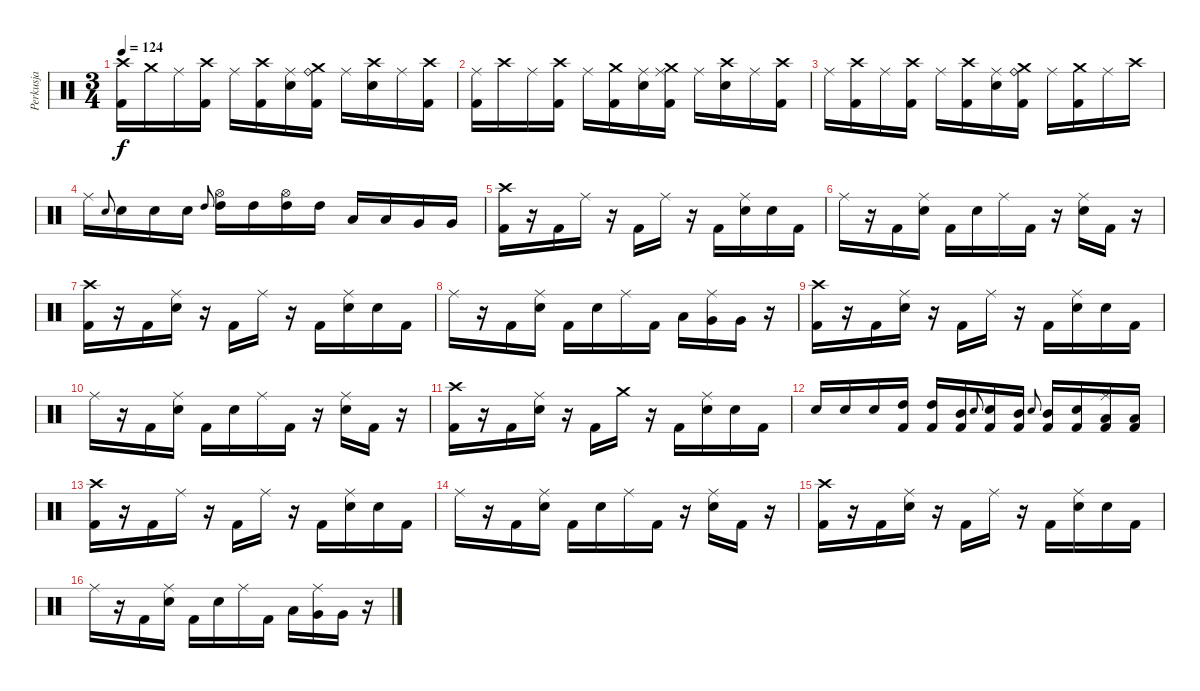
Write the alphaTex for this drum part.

\track ("Perkusja" "Perkusja") {instrument percussion}
\staff {score}
\articulation defaults
\ts (3 4)
\tempo 124
\clef neutral
\ks c
("Crash high (hit)" "Kick (hit) 2").16{dy f} "Crash medium (hit)".16 "Ride (middle)".16 ("Crash high (hit)" "Kick (hit) 2").16 "Ride (middle)".16 ("Crash high (hit)" "Kick (hit) 2").16 ("Ride (middle)" "Electric Snare (hit)").16 ("Ride (bell)" "Crash medium (hit)" "Kick (hit) 2").16 "Ride (middle)".16 ("Crash high (hit)" "Electric Snare (hit)").16 "Ride (middle)".16 ("Crash high (hit)" "Kick (hit) 2").16 |
("Ride (middle)" "Kick (hit) 2").16 "Crash high (hit)".16 "Ride (middle)".16 ("Crash high (hit)" "Kick (hit) 2").16 "Ride (middle)".16 ("Crash medium (hit)" "Kick (hit) 2").16 ("Ride (middle)" "Electric Snare (hit)").16 ("Crash medium (hit)" "Ride (middle)" "Kick (hit) 2").16 "Ride (middle)".16 ("Crash high (hit)" "Electric Snare (hit)").16 "Ride (middle)".16 ("Crash high (hit)" "Kick (hit) 2").16 |
"Ride (middle)".16 ("Crash high (hit)" "Kick (hit) 2").16 "Ride (middle)".16 ("Crash high (hit)" "Kick (hit) 2").16 "Ride (middle)".16 ("Crash high (hit)" "Kick (hit) 2").16 ("Ride (middle)" "Electric Snare (hit)").16 ("Crash medium (hit)" "Ride (bell)" "Kick (hit) 2").16 "Ride (middle)".16 ("Crash medium (hit)" "Kick (hit) 2").16 "Ride (middle)".16 "Crash high (hit)".16 |
"Ride (middle)".16 "Electric Snare (hit)".8{gr onbeat} "Electric Snare (hit)".16 "Electric Snare (hit)".16 "Electric Snare (hit)".16 "High Tom (hit)".8{gr onbeat} ("Hi-Hat (open)" "High Tom (hit)").16 "High Tom (hit)".16 ("Hi-Hat (open)" "High Tom (hit)").16 "High Tom (hit)".16 "Low Tom (hit)".16 "Low Tom (hit)".16 "Very Low Tom (hit)".16 "Very Low Tom (hit)".16 |
("Crash high (hit)" "Kick (hit) 2").16 r.16 "Kick (hit) 2".16 "Ride (middle)".16 r.16 "Kick (hit) 2".16 "Ride (middle)".16 r.16 "Kick (hit) 2".16 ("Ride (middle)" "Electric Snare (hit)").16 "Electric Snare (hit)".16 "Kick (hit) 2".16 |
"Ride (middle)".16 r.16 "Kick (hit) 2".16 ("Ride (middle)" "Electric Snare (hit)").16 "Kick (hit) 2".16 "Electric Snare (hit)".16 "Ride (middle)".16 "Kick (hit) 2".16 r.16 ("Ride (middle)" "Electric Snare (hit)").16 "Kick (hit) 2".16 r.16 |
("Crash high (hit)" "Kick (hit) 2").16 r.16 "Kick (hit) 2".16 ("Ride (middle)" "Electric Snare (hit)").16 r.16 "Kick (hit) 2".16 "Ride (middle)".16 r.16 "Kick (hit) 2".16 ("Ride (middle)" "Electric Snare (hit)").16 "Electric Snare (hit)".16 "Kick (hit) 2".16 |
"Ride (middle)".16 r.16 "Kick (hit) 2".16 ("Ride (middle)" "Electric Snare (hit)").16 "Kick (hit) 2".16 "Electric Snare (hit)".16 "Ride (middle)".16 "Kick (hit) 2".16 "Low Tom (hit)".16 ("Ride (middle)" "Very Low Tom (hit)").16 "Very Low Tom (hit)".16 r.16 |
("Crash high (hit)" "Kick (hit) 2").16 r.16 "Kick (hit) 2".16 ("Ride (middle)" "Electric Snare (hit)").16 r.16 "Kick (hit) 2".16 "Ride (middle)".16 r.16 "Kick (hit) 2".16 ("Ride (middle)" "Electric Snare (hit)").16 "Electric Snare (hit)".16 "Kick (hit) 2".16 |
"Ride (middle)".16 r.16 "Kick (hit) 2".16 ("Ride (middle)" "Electric Snare (hit)").16 "Kick (hit) 2".16 "Electric Snare (hit)".16 "Ride (middle)".16 "Kick (hit) 2".16 r.16 ("Ride (middle)" "Electric Snare (hit)").16 "Kick (hit) 2".16 r.16 |
("Crash high (hit)" "Kick (hit) 2").16 r.16 "Kick (hit) 2".16 ("Ride (middle)" "Electric Snare (hit)").16 r.16 "Kick (hit) 2".16 "Crash medium (hit)".16 r.16 "Kick (hit) 2".16 ("Ride (middle)" "Electric Snare (hit)").16 "Electric Snare (hit)".16 "Kick (hit) 2".16 |
"Electric Snare (hit)".16 "Electric Snare (hit)".16 "Electric Snare (hit)".16 ("High Tom (hit)" "Kick (hit) 2").16 ("High Tom (hit)" "Kick (hit) 2").16 ("Mid Tom (hit)" "Kick (hit) 2").16 "Electric Snare (hit)".8{gr onbeat} ("Electric Snare (hit)" "Kick (hit) 2").16 ("Mid Tom (hit)" "Kick (hit) 2").16 "Electric Snare (hit)".8{gr onbeat} ("Mid Tom (hit)" "Kick (hit) 2").16 ("Electric Snare (hit)" "Kick (hit) 2").16 ("Ride (middle)" "Low Floor Tom (hit)" "Kick (hit) 2").16 ("Low Floor Tom (hit)" "Kick (hit) 2").16 |
("Crash high (hit)" "Kick (hit) 2").16 r.16 "Kick (hit) 2".16 "Ride (middle)".16 r.16 "Kick (hit) 2".16 "Ride (middle)".16 r.16 "Kick (hit) 2".16 ("Ride (middle)" "Electric Snare (hit)").16 "Electric Snare (hit)".16 "Kick (hit) 2".16 |
"Ride (middle)".16 r.16 "Kick (hit) 2".16 ("Ride (middle)" "Electric Snare (hit)").16 "Kick (hit) 2".16 "Electric Snare (hit)".16 "Ride (middle)".16 "Kick (hit) 2".16 r.16 ("Ride (middle)" "Electric Snare (hit)").16 "Kick (hit) 2".16 r.16 |
("Crash high (hit)" "Kick (hit) 2").16 r.16 "Kick (hit) 2".16 ("Ride (middle)" "Electric Snare (hit)").16 r.16 "Kick (hit) 2".16 "Ride (middle)".16 r.16 "Kick (hit) 2".16 ("Ride (middle)" "Electric Snare (hit)").16 "Electric Snare (hit)".16 "Kick (hit) 2".16 |
"Ride (middle)".16 r.16 "Kick (hit) 2".16 ("Ride (middle)" "Electric Snare (hit)").16 "Kick (hit) 2".16 "Electric Snare (hit)".16 "Ride (middle)".16 "Kick (hit) 2".16 "Low Tom (hit)".16 ("Ride (middle)" "Very Low Tom (hit)").16 "Very Low Tom (hit)".16 r.16
